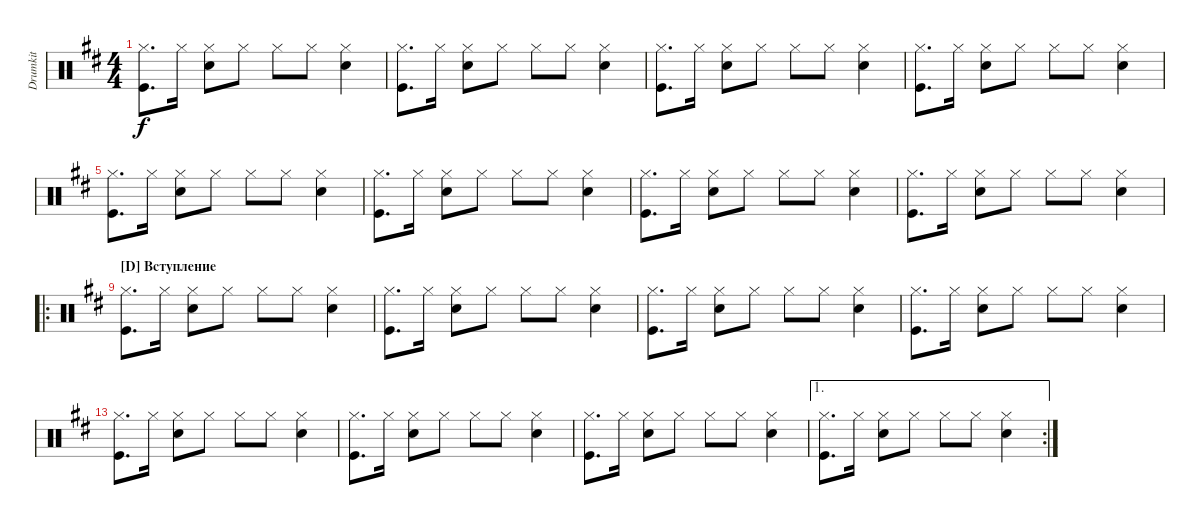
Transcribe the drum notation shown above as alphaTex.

\bracketExtendMode groupsimilarinstruments
\multiTrackTrackNamePolicy hidden
\firstSystemTrackNameMode fullname
\otherSystemsTrackNameMode fullname
\otherSystemsTrackNameOrientation horizontal
\defaultBarNumberDisplay FirstOfSystem
\track ("Drumkit" "Drums") {instrument percussion}
\staff {score}
\articulation defaults
\ts (4 4)
\tempo (90 hide)
\clef neutral
\ks d
("Hi-Hat (closed)" "Kick (hit)").8{d dy f} "Hi-Hat (closed)".16 ("Hi-Hat (closed)" "Snare (hit) 2").8 "Hi-Hat (closed)".8 "Hi-Hat (closed)".8 "Hi-Hat (closed)".8 ("Hi-Hat (closed)" "Snare (hit) 2").4 |
("Hi-Hat (closed)" "Kick (hit)").8{d} "Hi-Hat (closed)".16 ("Hi-Hat (closed)" "Snare (hit) 2").8 "Hi-Hat (closed)".8 "Hi-Hat (closed)".8 "Hi-Hat (closed)".8 ("Hi-Hat (closed)" "Snare (hit) 2").4 |
("Hi-Hat (closed)" "Kick (hit)").8{d} "Hi-Hat (closed)".16 ("Hi-Hat (closed)" "Snare (hit) 2").8 "Hi-Hat (closed)".8 "Hi-Hat (closed)".8 "Hi-Hat (closed)".8 ("Hi-Hat (closed)" "Snare (hit) 2").4 |
("Hi-Hat (closed)" "Kick (hit)").8{d} "Hi-Hat (closed)".16 ("Hi-Hat (closed)" "Snare (hit) 2").8 "Hi-Hat (closed)".8 "Hi-Hat (closed)".8 "Hi-Hat (closed)".8 ("Hi-Hat (closed)" "Snare (hit) 2").4 |
("Hi-Hat (closed)" "Kick (hit)").8{d} "Hi-Hat (closed)".16 ("Hi-Hat (closed)" "Snare (hit) 2").8 "Hi-Hat (closed)".8 "Hi-Hat (closed)".8 "Hi-Hat (closed)".8 ("Hi-Hat (closed)" "Snare (hit) 2").4 |
("Hi-Hat (closed)" "Kick (hit)").8{d} "Hi-Hat (closed)".16 ("Hi-Hat (closed)" "Snare (hit) 2").8 "Hi-Hat (closed)".8 "Hi-Hat (closed)".8 "Hi-Hat (closed)".8 ("Hi-Hat (closed)" "Snare (hit) 2").4 |
("Hi-Hat (closed)" "Kick (hit)").8{d} "Hi-Hat (closed)".16 ("Hi-Hat (closed)" "Snare (hit) 2").8 "Hi-Hat (closed)".8 "Hi-Hat (closed)".8 "Hi-Hat (closed)".8 ("Hi-Hat (closed)" "Snare (hit) 2").4 |
("Hi-Hat (closed)" "Kick (hit)").8{d} "Hi-Hat (closed)".16 ("Hi-Hat (closed)" "Snare (hit) 2").8 "Hi-Hat (closed)".8 "Hi-Hat (closed)".8 "Hi-Hat (closed)".8 ("Hi-Hat (closed)" "Snare (hit) 2").4 |
\ro
\section ("D" "Вступление")
("Hi-Hat (closed)" "Kick (hit)").8{d} "Hi-Hat (closed)".16 ("Hi-Hat (closed)" "Snare (hit) 2").8 "Hi-Hat (closed)".8 "Hi-Hat (closed)".8 "Hi-Hat (closed)".8 ("Hi-Hat (closed)" "Snare (hit) 2").4 |
("Hi-Hat (closed)" "Kick (hit)").8{d} "Hi-Hat (closed)".16 ("Hi-Hat (closed)" "Snare (hit) 2").8 "Hi-Hat (closed)".8 "Hi-Hat (closed)".8 "Hi-Hat (closed)".8 ("Hi-Hat (closed)" "Snare (hit) 2").4 |
("Hi-Hat (closed)" "Kick (hit)").8{d} "Hi-Hat (closed)".16 ("Hi-Hat (closed)" "Snare (hit) 2").8 "Hi-Hat (closed)".8 "Hi-Hat (closed)".8 "Hi-Hat (closed)".8 ("Hi-Hat (closed)" "Snare (hit) 2").4 |
("Hi-Hat (closed)" "Kick (hit)").8{d} "Hi-Hat (closed)".16 ("Hi-Hat (closed)" "Snare (hit) 2").8 "Hi-Hat (closed)".8 "Hi-Hat (closed)".8 "Hi-Hat (closed)".8 ("Hi-Hat (closed)" "Snare (hit) 2").4 |
("Hi-Hat (closed)" "Kick (hit)").8{d} "Hi-Hat (closed)".16 ("Hi-Hat (closed)" "Snare (hit) 2").8 "Hi-Hat (closed)".8 "Hi-Hat (closed)".8 "Hi-Hat (closed)".8 ("Hi-Hat (closed)" "Snare (hit) 2").4 |
("Hi-Hat (closed)" "Kick (hit)").8{d} "Hi-Hat (closed)".16 ("Hi-Hat (closed)" "Snare (hit) 2").8 "Hi-Hat (closed)".8 "Hi-Hat (closed)".8 "Hi-Hat (closed)".8 ("Hi-Hat (closed)" "Snare (hit) 2").4 |
("Hi-Hat (closed)" "Kick (hit)").8{d} "Hi-Hat (closed)".16 ("Hi-Hat (closed)" "Snare (hit) 2").8 "Hi-Hat (closed)".8 "Hi-Hat (closed)".8 "Hi-Hat (closed)".8 ("Hi-Hat (closed)" "Snare (hit) 2").4 |
\ae 1
\rc 2
("Hi-Hat (closed)" "Kick (hit)").8{d} "Hi-Hat (closed)".16 ("Hi-Hat (closed)" "Snare (hit) 2").8 "Hi-Hat (closed)".8 "Hi-Hat (closed)".8 "Hi-Hat (closed)".8 ("Hi-Hat (closed)" "Snare (hit) 2").4
